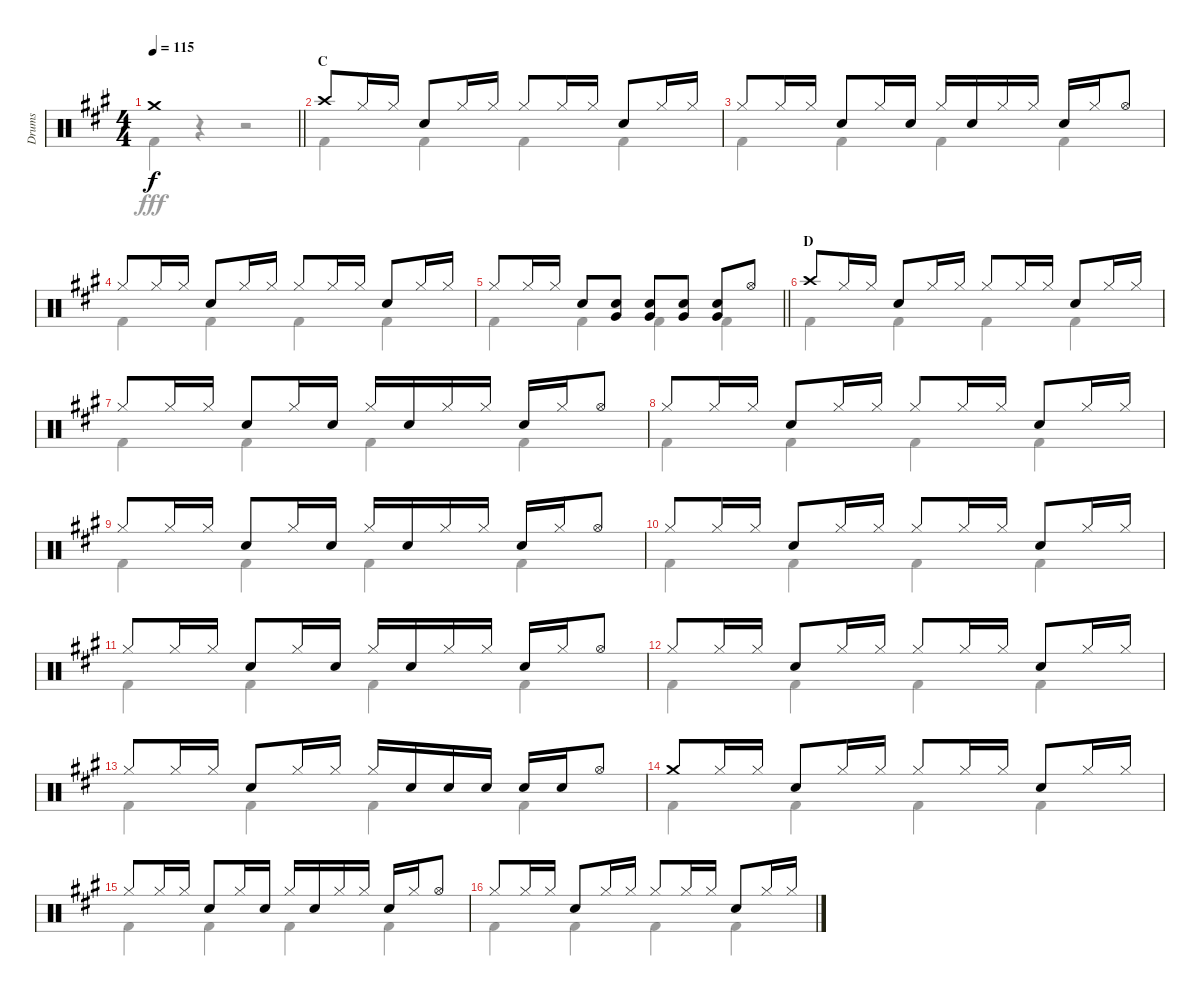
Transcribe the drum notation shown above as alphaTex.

\track ("Drums" "Drums") {instrument percussion}
\staff {score}
\articulation defaults
\voice
\ts (4 4)
\tempo 115
\clef neutral
\barLineRight lightlight
\ks a "Crash medium (hit)".1{dy f}
|
\section ("" "C")
"Crash high (hit)".8 "Hi-Hat (closed)".16 "Hi-Hat (closed)".16 "Snare (hit) 2".8 "Hi-Hat (closed)".16 "Hi-Hat (closed)".16 "Hi-Hat (closed)".8 "Hi-Hat (closed)".16 "Hi-Hat (closed)".16 "Snare (hit) 2".8 "Hi-Hat (closed)".16 "Hi-Hat (closed)".16 |
"Hi-Hat (closed)".8 "Hi-Hat (closed)".16 "Hi-Hat (closed)".16 "Snare (hit) 2".8 "Hi-Hat (closed)".16 "Snare (hit) 2".16 "Hi-Hat (closed)".16 "Snare (hit) 2".16 "Hi-Hat (closed)".16 "Hi-Hat (closed)".16 "Snare (hit) 2".16 "Hi-Hat (closed)".16 "Hi-Hat (open)".8 |
"Hi-Hat (closed)".8 "Hi-Hat (closed)".16 "Hi-Hat (closed)".16 "Snare (hit) 2".8 "Hi-Hat (closed)".16 "Hi-Hat (closed)".16 "Hi-Hat (closed)".8 "Hi-Hat (closed)".16 "Hi-Hat (closed)".16 "Snare (hit) 2".8 "Hi-Hat (closed)".16 "Hi-Hat (closed)".16 |
\barLineRight lightlight "Hi-Hat (closed)".8 "Hi-Hat (closed)".16 "Hi-Hat (closed)".16 "Snare (hit) 2".8
("Snare (hit) 2" "Very Low Tom (hit)").8 ("Snare (hit) 2" "Very Low Tom (hit)").8 ("Snare (hit) 2" "Very Low Tom (hit)").8 ("Snare (hit) 2" "Very Low Tom (hit)").8 "Hi-Hat (open)".8 |
\section ("" "D")
"Crash high (hit)".8 "Hi-Hat (closed)".16 "Hi-Hat (closed)".16 "Snare (hit) 2".8 "Hi-Hat (closed)".16 "Hi-Hat (closed)".16 "Hi-Hat (closed)".8 "Hi-Hat (closed)".16 "Hi-Hat (closed)".16 "Snare (hit) 2".8 "Hi-Hat (closed)".16 "Hi-Hat (closed)".16 |
"Hi-Hat (closed)".8 "Hi-Hat (closed)".16 "Hi-Hat (closed)".16 "Snare (hit) 2".8 "Hi-Hat (closed)".16 "Snare (hit) 2".16 "Hi-Hat (closed)".16 "Snare (hit) 2".16 "Hi-Hat (closed)".16 "Hi-Hat (closed)".16 "Snare (hit) 2".16 "Hi-Hat (closed)".16 "Hi-Hat (open)".8 |
"Hi-Hat (closed)".8 "Hi-Hat (closed)".16 "Hi-Hat (closed)".16 "Snare (hit) 2".8 "Hi-Hat (closed)".16 "Hi-Hat (closed)".16 "Hi-Hat (closed)".8 "Hi-Hat (closed)".16 "Hi-Hat (closed)".16 "Snare (hit) 2".8 "Hi-Hat (closed)".16 "Hi-Hat (closed)".16 |
"Hi-Hat (closed)".8 "Hi-Hat (closed)".16 "Hi-Hat (closed)".16 "Snare (hit) 2".8 "Hi-Hat (closed)".16 "Snare (hit) 2".16 "Hi-Hat (closed)".16 "Snare (hit) 2".16 "Hi-Hat (closed)".16 "Hi-Hat (closed)".16 "Snare (hit) 2".16 "Hi-Hat (closed)".16 "Hi-Hat (open)".8 |
"Hi-Hat (closed)".8 "Hi-Hat (closed)".16 "Hi-Hat (closed)".16 "Snare (hit) 2".8 "Hi-Hat (closed)".16 "Hi-Hat (closed)".16 "Hi-Hat (closed)".8 "Hi-Hat (closed)".16 "Hi-Hat (closed)".16 "Snare (hit) 2".8 "Hi-Hat (closed)".16 "Hi-Hat (closed)".16 |
"Hi-Hat (closed)".8 "Hi-Hat (closed)".16 "Hi-Hat (closed)".16 "Snare (hit) 2".8 "Hi-Hat (closed)".16 "Snare (hit) 2".16 "Hi-Hat (closed)".16 "Snare (hit) 2".16 "Hi-Hat (closed)".16 "Hi-Hat (closed)".16 "Snare (hit) 2".16 "Hi-Hat (closed)".16 "Hi-Hat (open)".8 |
"Hi-Hat (closed)".8 "Hi-Hat (closed)".16 "Hi-Hat (closed)".16 "Snare (hit) 2".8 "Hi-Hat (closed)".16 "Hi-Hat (closed)".16 "Hi-Hat (closed)".8 "Hi-Hat (closed)".16 "Hi-Hat (closed)".16 "Snare (hit) 2".8 "Hi-Hat (closed)".16 "Hi-Hat (closed)".16 |
"Hi-Hat (closed)".8 "Hi-Hat (closed)".16 "Hi-Hat (closed)".16 "Snare (hit) 2".8 "Hi-Hat (closed)".16 "Hi-Hat (closed)".16 "Hi-Hat (closed)".16 "Snare (hit) 2".16 "Snare (hit) 2".16 "Snare (hit) 2".16 "Snare (hit) 2".16 "Snare (hit) 2".16 "Hi-Hat (open)".8 |
"Crash medium (hit)".8 "Hi-Hat (closed)".16 "Hi-Hat (closed)".16 "Snare (hit) 2".8 "Hi-Hat (closed)".16 "Hi-Hat (closed)".16 "Hi-Hat (closed)".8 "Hi-Hat (closed)".16 "Hi-Hat (closed)".16 "Snare (hit) 2".8 "Hi-Hat (closed)".16 "Hi-Hat (closed)".16 |
"Hi-Hat (closed)".8 "Hi-Hat (closed)".16 "Hi-Hat (closed)".16 "Snare (hit) 2".8 "Hi-Hat (closed)".16 "Snare (hit) 2".16 "Hi-Hat (closed)".16 "Snare (hit) 2".16 "Hi-Hat (closed)".16 "Hi-Hat (closed)".16 "Snare (hit) 2".16 "Hi-Hat (closed)".16 "Hi-Hat (open)".8 |
"Hi-Hat (closed)".8 "Hi-Hat (closed)".16 "Hi-Hat (closed)".16 "Snare (hit) 2".8 "Hi-Hat (closed)".16 "Hi-Hat (closed)".16 "Hi-Hat (closed)".8 "Hi-Hat (closed)".16 "Hi-Hat (closed)".16 "Snare (hit) 2".8 "Hi-Hat (closed)".16 "Hi-Hat (closed)".16
\voice
\clef neutral
\ottava regular
\simile none
\barLineRight lightlight
\ks a "Kick (hit) 2".4{dy fff}
r.4 r.2 |
"Kick (hit) 2".4 "Kick (hit) 2".4 "Kick (hit) 2".4 "Kick (hit) 2".4 |
"Kick (hit) 2".4 "Kick (hit) 2".4 "Kick (hit) 2".4 "Kick (hit) 2".4 |
"Kick (hit) 2".4 "Kick (hit) 2".4 "Kick (hit) 2".4 "Kick (hit) 2".4 |
\barLineRight lightlight "Kick (hit) 2".4 "Kick (hit) 2".4 "Kick (hit) 2".4 "Kick (hit) 2".4
|
"Kick (hit) 2".4 "Kick (hit) 2".4 "Kick (hit) 2".4 "Kick (hit) 2".4 |
"Kick (hit) 2".4 "Kick (hit) 2".4 "Kick (hit) 2".4 "Kick (hit) 2".4 |
"Kick (hit) 2".4 "Kick (hit) 2".4 "Kick (hit) 2".4 "Kick (hit) 2".4 |
"Kick (hit) 2".4 "Kick (hit) 2".4 "Kick (hit) 2".4 "Kick (hit) 2".4 |
"Kick (hit) 2".4 "Kick (hit) 2".4 "Kick (hit) 2".4 "Kick (hit) 2".4 |
"Kick (hit) 2".4 "Kick (hit) 2".4 "Kick (hit) 2".4 "Kick (hit) 2".4 |
"Kick (hit) 2".4 "Kick (hit) 2".4 "Kick (hit) 2".4 "Kick (hit) 2".4 |
"Kick (hit) 2".4 "Kick (hit) 2".4 "Kick (hit) 2".4 "Kick (hit) 2".4 |
"Kick (hit) 2".4 "Kick (hit) 2".4 "Kick (hit) 2".4 "Kick (hit) 2".4 |
"Kick (hit) 2".4 "Kick (hit) 2".4 "Kick (hit) 2".4 "Kick (hit) 2".4 |
"Kick (hit) 2".4 "Kick (hit) 2".4 "Kick (hit) 2".4 "Kick (hit) 2".4
